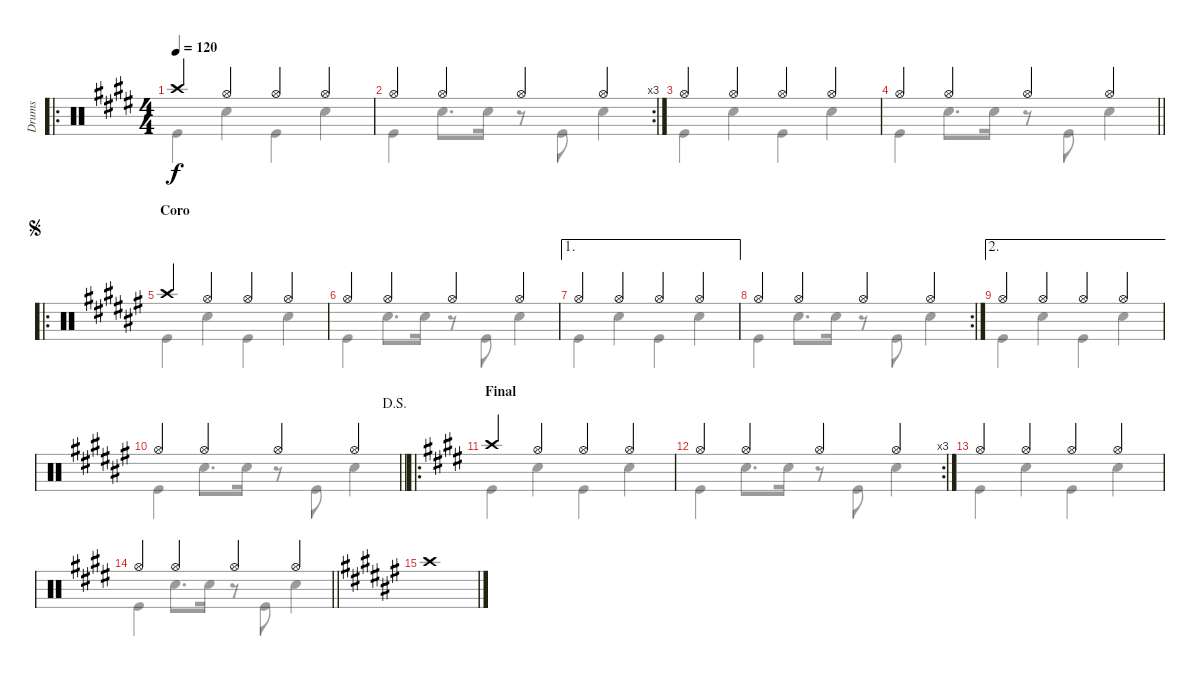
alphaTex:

\track ("Drums" "Drums") {instrument percussion}
\staff {score}
\articulation defaults
\voice
\ro
\ts (4 4)
\tempo 120
\clef neutral
\ks e "Crash high (hit)".4{dy f} "Hi-Hat (open)".4 "Hi-Hat (open)".4 "Hi-Hat (open)".4
|
\rc 3 "Hi-Hat (open)".4 "Hi-Hat (open)".4 "Hi-Hat (open)".4 "Hi-Hat (open)".4
|
"Hi-Hat (open)".4 "Hi-Hat (open)".4 "Hi-Hat (open)".4 "Hi-Hat (open)".4 |
\barLineRight lightlight "Hi-Hat (open)".4 "Hi-Hat (open)".4 "Hi-Hat (open)".4 "Hi-Hat (open)".4
|
\ro
\section ("" "Coro")
\jump segno
\ks f# "Crash high (hit)".4 "Hi-Hat (open)".4 "Hi-Hat (open)".4 "Hi-Hat (open)".4
|
"Hi-Hat (open)".4 "Hi-Hat (open)".4 "Hi-Hat (open)".4 "Hi-Hat (open)".4 |
\ae 1 "Hi-Hat (open)".4 "Hi-Hat (open)".4 "Hi-Hat (open)".4 "Hi-Hat (open)".4
|
\rc 2 "Hi-Hat (open)".4 "Hi-Hat (open)".4 "Hi-Hat (open)".4 "Hi-Hat (open)".4
|
\ae 2 "Hi-Hat (open)".4 "Hi-Hat (open)".4 "Hi-Hat (open)".4 "Hi-Hat (open)".4
|
\jump dalsegno
\barLineRight lightlight "Hi-Hat (open)".4 "Hi-Hat (open)".4 "Hi-Hat (open)".4 "Hi-Hat (open)".4
|
\ro
\section ("" "Final")
\ks e "Crash high (hit)".4 "Hi-Hat (open)".4 "Hi-Hat (open)".4 "Hi-Hat (open)".4
|
\rc 3 "Hi-Hat (open)".4 "Hi-Hat (open)".4 "Hi-Hat (open)".4 "Hi-Hat (open)".4
|
"Hi-Hat (open)".4 "Hi-Hat (open)".4 "Hi-Hat (open)".4 "Hi-Hat (open)".4 |
\barLineRight lightlight "Hi-Hat (open)".4 "Hi-Hat (open)".4 "Hi-Hat (open)".4 "Hi-Hat (open)".4
|
\ks f# "Crash high (hit)".1
\voice
\clef neutral
\ottava regular
\simile none
\ks e "Kick (hit)".4{dy f} "Snare (hit) 2".4 "Kick (hit)".4 "Snare (hit) 2".4
|
"Kick (hit)".4 "Snare (hit) 2".8{d} "Snare (hit) 2".16 r.8 "Kick (hit)".8 "Snare (hit) 2".4 |
"Kick (hit)".4 "Snare (hit) 2".4 "Kick (hit)".4 "Snare (hit) 2".4 |
\barLineRight lightlight "Kick (hit)".4 "Snare (hit) 2".8{d} "Snare (hit) 2".16
r.8 "Kick (hit)".8 "Snare (hit) 2".4 |
\ks f# "Kick (hit)".4 "Snare (hit) 2".4 "Kick (hit)".4 "Snare (hit) 2".4
|
"Kick (hit)".4 "Snare (hit) 2".8{d} "Snare (hit) 2".16 r.8 "Kick (hit)".8 "Snare (hit) 2".4 |
"Kick (hit)".4 "Snare (hit) 2".4 "Kick (hit)".4 "Snare (hit) 2".4 |
"Kick (hit)".4 "Snare (hit) 2".8{d} "Snare (hit) 2".16 r.8 "Kick (hit)".8 "Snare (hit) 2".4 |
"Kick (hit)".4 "Snare (hit) 2".4 "Kick (hit)".4 "Snare (hit) 2".4 |
\barLineRight lightlight "Kick (hit)".4 "Snare (hit) 2".8{d} "Snare (hit) 2".16
r.8 "Kick (hit)".8 "Snare (hit) 2".4 |
\ks e "Kick (hit)".4 "Snare (hit) 2".4 "Kick (hit)".4 "Snare (hit) 2".4
|
"Kick (hit)".4 "Snare (hit) 2".8{d} "Snare (hit) 2".16 r.8 "Kick (hit)".8 "Snare (hit) 2".4 |
"Kick (hit)".4 "Snare (hit) 2".4 "Kick (hit)".4 "Snare (hit) 2".4 |
\barLineRight lightlight "Kick (hit)".4 "Snare (hit) 2".8{d} "Snare (hit) 2".16
r.8 "Kick (hit)".8 "Snare (hit) 2".4 |
\ks f#
